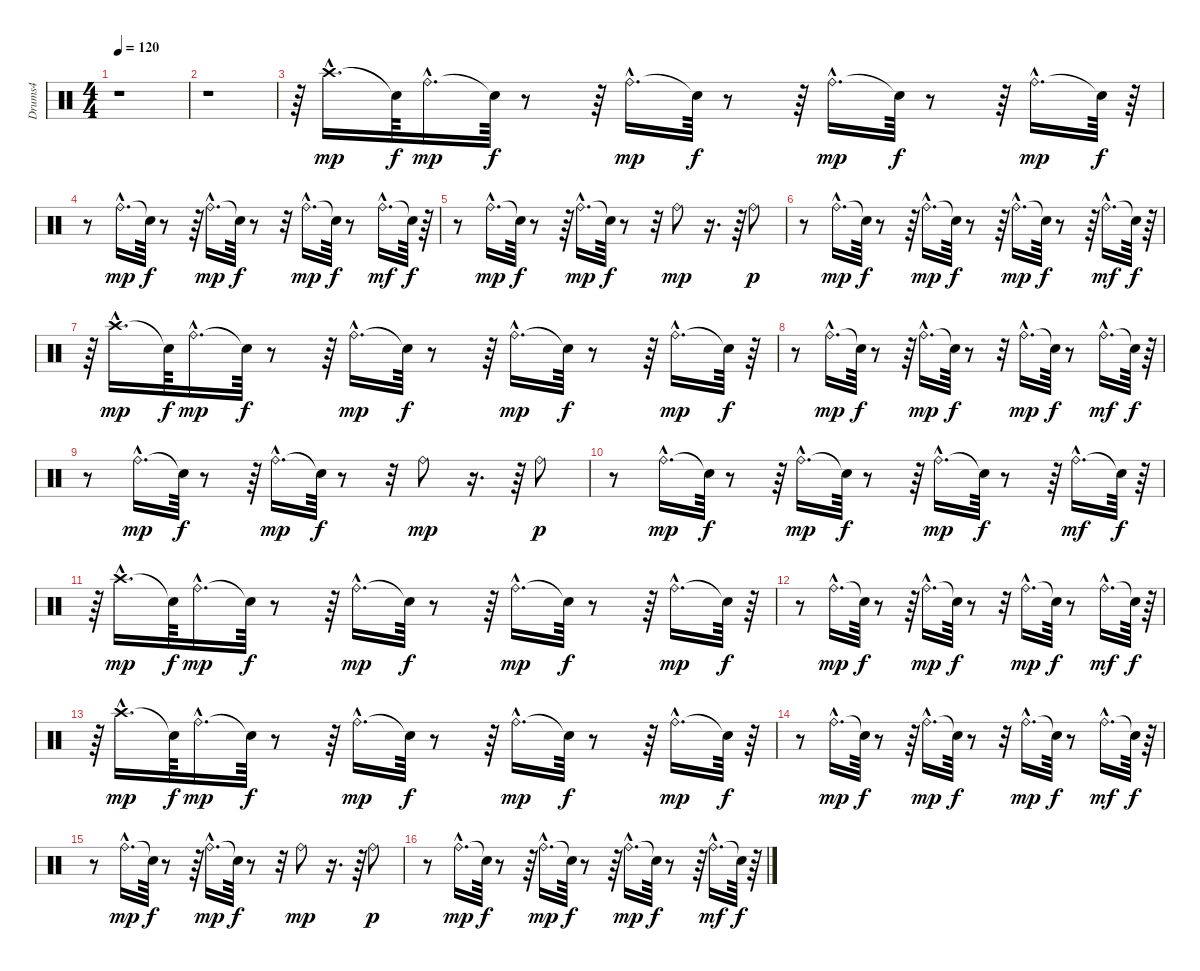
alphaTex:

\track ("Drums4" "Drums4") {instrument percussion}
\staff {score}
\articulation defaults
\ts (4 4)
\tempo 120
\clef neutral
\ks c
r.1{dy mp} |
r.1 |
r.64 "Crash high (hit)"{hac}.16{d} "Snare (hit)"{t}.64{dy f} "Ride (bell)"{hac}.16{d dy mp} "Snare (hit)"{t}.64{dy f} r.8 r.64 "Ride (bell)"{hac}.16{d dy mp} "Snare (hit)"{t}.64{dy f} r.8 r.64 "Ride (bell)"{hac}.16{d dy mp} "Snare (hit)"{t}.64{dy f} r.8 r.64 "Ride (bell)"{hac}.16{d dy mp} "Snare (hit)"{t}.64{dy f} r.64 |
r.8 "Ride (bell)"{hac}.16{d dy mp} "Snare (hit)"{t}.64{dy f} r.8 r.64 "Ride (bell)"{hac}.16{d dy mp} "Snare (hit)"{t}.64{dy f} r.8 r.32 "Ride (bell)"{hac}.16{d dy mp} "Snare (hit)"{t}.64{dy f} r.8 "Ride (bell)"{hac}.16{d dy mf} "Snare (hit)"{t}.64{dy f} r.64 |
r.8 "Ride (bell)"{hac}.16{d dy mp} "Snare (hit)"{t}.64{dy f} r.8 r.64 "Ride (bell)"{hac}.16{d dy mp} "Snare (hit)"{t}.64{dy f} r.8 r.32 "Ride (bell)".8{dy mp} r.16{d} r.64 "Ride (bell)".8{dy p} |
r.8 "Ride (bell)"{hac}.16{d dy mp} "Snare (hit)"{t}.64{dy f} r.8 r.64 "Ride (bell)"{hac}.16{d dy mp} "Snare (hit)"{t}.64{dy f} r.8 r.64 "Ride (bell)"{hac}.16{d dy mp} "Snare (hit)"{t}.64{dy f} r.8 r.64 "Ride (bell)"{hac}.16{d dy mf} "Snare (hit)"{t}.64{dy f} r.64 |
r.64 "Crash high (hit)"{hac}.16{d dy mp} "Snare (hit)"{t}.64{dy f} "Ride (bell)"{hac}.16{d dy mp} "Snare (hit)"{t}.64{dy f} r.8 r.64 "Ride (bell)"{hac}.16{d dy mp} "Snare (hit)"{t}.64{dy f} r.8 r.64 "Ride (bell)"{hac}.16{d dy mp} "Snare (hit)"{t}.64{dy f} r.8 r.64 "Ride (bell)"{hac}.16{d dy mp} "Snare (hit)"{t}.64{dy f} r.64 |
r.8 "Ride (bell)"{hac}.16{d dy mp} "Snare (hit)"{t}.64{dy f} r.8 r.64 "Ride (bell)"{hac}.16{d dy mp} "Snare (hit)"{t}.64{dy f} r.8 r.32 "Ride (bell)"{hac}.16{d dy mp} "Snare (hit)"{t}.64{dy f} r.8 "Ride (bell)"{hac}.16{d dy mf} "Snare (hit)"{t}.64{dy f} r.64 |
r.8 "Ride (bell)"{hac}.16{d dy mp} "Snare (hit)"{t}.64{dy f} r.8 r.64 "Ride (bell)"{hac}.16{d dy mp} "Snare (hit)"{t}.64{dy f} r.8 r.32 "Ride (bell)".8{dy mp} r.16{d} r.64 "Ride (bell)".8{dy p} |
r.8 "Ride (bell)"{hac}.16{d dy mp} "Snare (hit)"{t}.64{dy f} r.8 r.64 "Ride (bell)"{hac}.16{d dy mp} "Snare (hit)"{t}.64{dy f} r.8 r.64 "Ride (bell)"{hac}.16{d dy mp} "Snare (hit)"{t}.64{dy f} r.8 r.64 "Ride (bell)"{hac}.16{d dy mf} "Snare (hit)"{t}.64{dy f} r.64 |
r.64 "Crash high (hit)"{hac}.16{d dy mp} "Snare (hit)"{t}.64{dy f} "Ride (bell)"{hac}.16{d dy mp} "Snare (hit)"{t}.64{dy f} r.8 r.64 "Ride (bell)"{hac}.16{d dy mp} "Snare (hit)"{t}.64{dy f} r.8 r.64 "Ride (bell)"{hac}.16{d dy mp} "Snare (hit)"{t}.64{dy f} r.8 r.64 "Ride (bell)"{hac}.16{d dy mp} "Snare (hit)"{t}.64{dy f} r.64 |
r.8 "Ride (bell)"{hac}.16{d dy mp} "Snare (hit)"{t}.64{dy f} r.8 r.64 "Ride (bell)"{hac}.16{d dy mp} "Snare (hit)"{t}.64{dy f} r.8 r.32 "Ride (bell)"{hac}.16{d dy mp} "Snare (hit)"{t}.64{dy f} r.8 "Ride (bell)"{hac}.16{d dy mf} "Snare (hit)"{t}.64{dy f} r.64 |
r.64 "Crash high (hit)"{hac}.16{d dy mp} "Snare (hit)"{t}.64{dy f} "Ride (bell)"{hac}.16{d dy mp} "Snare (hit)"{t}.64{dy f} r.8 r.64 "Ride (bell)"{hac}.16{d dy mp} "Snare (hit)"{t}.64{dy f} r.8 r.64 "Ride (bell)"{hac}.16{d dy mp} "Snare (hit)"{t}.64{dy f} r.8 r.64 "Ride (bell)"{hac}.16{d dy mp} "Snare (hit)"{t}.64{dy f} r.64 |
r.8 "Ride (bell)"{hac}.16{d dy mp} "Snare (hit)"{t}.64{dy f} r.8 r.64 "Ride (bell)"{hac}.16{d dy mp} "Snare (hit)"{t}.64{dy f} r.8 r.32 "Ride (bell)"{hac}.16{d dy mp} "Snare (hit)"{t}.64{dy f} r.8 "Ride (bell)"{hac}.16{d dy mf} "Snare (hit)"{t}.64{dy f} r.64 |
r.8 "Ride (bell)"{hac}.16{d dy mp} "Snare (hit)"{t}.64{dy f} r.8 r.64 "Ride (bell)"{hac}.16{d dy mp} "Snare (hit)"{t}.64{dy f} r.8 r.32 "Ride (bell)".8{dy mp} r.16{d} r.64 "Ride (bell)".8{dy p} |
r.8 "Ride (bell)"{hac}.16{d dy mp} "Snare (hit)"{t}.64{dy f} r.8 r.64 "Ride (bell)"{hac}.16{d dy mp} "Snare (hit)"{t}.64{dy f} r.8 r.64 "Ride (bell)"{hac}.16{d dy mp} "Snare (hit)"{t}.64{dy f} r.8 r.64 "Ride (bell)"{hac}.16{d dy mf} "Snare (hit)"{t}.64{dy f} r.64
